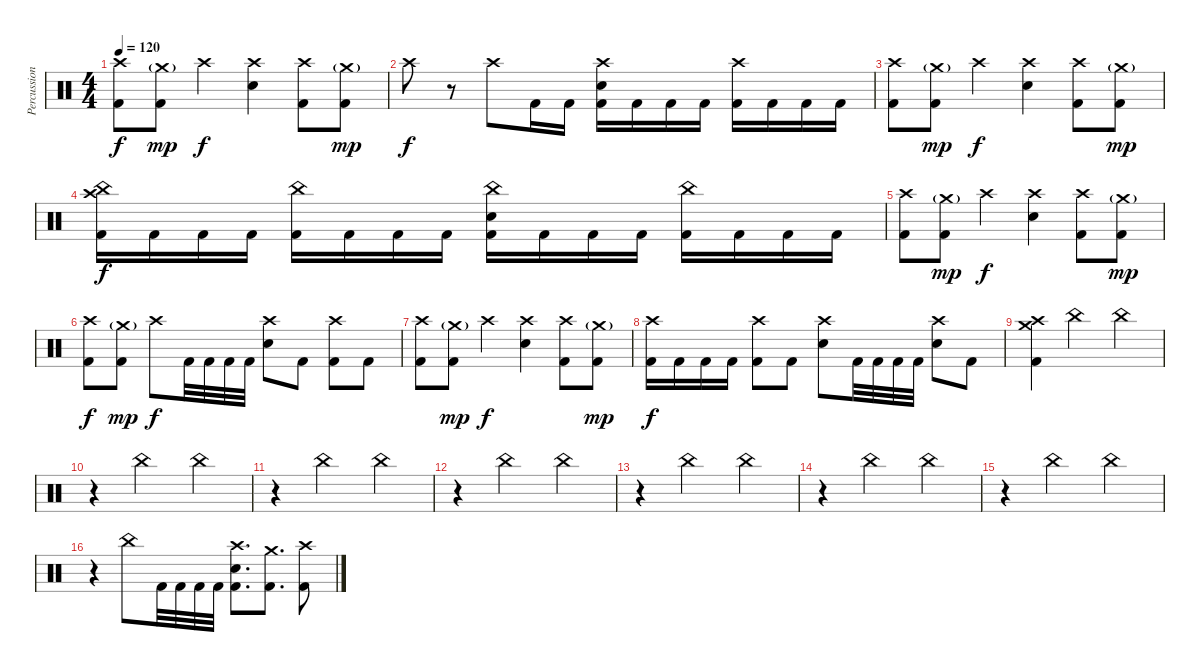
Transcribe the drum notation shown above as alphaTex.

\track ("Percussion" "Percussion") {instrument percussion}
\staff {score}
\articulation defaults
\ts (4 4)
\tempo 120
\clef neutral
\ks c
("Crash high (hit)" "Kick (hit) 2").8{dy f} ("Crash medium (hit)"{g} "Kick (hit) 2").8{dy mp} "Crash high (hit)".4{dy f} ("Crash high (hit)" "Electric Snare (hit)").4 ("Crash high (hit)" "Kick (hit) 2").8 ("Crash medium (hit)"{g} "Kick (hit) 2").8{dy mp} |
"Crash high (hit)".8{dy f} r.8 "Crash high (hit)".8 "Kick (hit) 2".16 "Kick (hit) 2".16 ("Crash high (hit)" "Electric Snare (hit)" "Kick (hit) 2").16 "Kick (hit) 2".16 "Kick (hit) 2".16 "Kick (hit) 2".16 ("Crash high (hit)" "Kick (hit) 2").16 "Kick (hit) 2".16 "Kick (hit) 2".16 "Kick (hit) 2".16 |
("Crash high (hit)" "Kick (hit) 2").8 ("Crash medium (hit)"{g} "Kick (hit) 2").8{dy mp} "Crash high (hit)".4{dy f} ("Crash high (hit)" "Electric Snare (hit)").4 ("Crash high (hit)" "Kick (hit) 2").8 ("Crash medium (hit)"{g} "Kick (hit) 2").8{dy mp} |
("China (hit)" "Crash high (hit)" "Kick (hit) 2").16{dy f} "Kick (hit) 2".16 "Kick (hit) 2".16 "Kick (hit) 2".16 ("China (hit)" "Kick (hit) 2").16 "Kick (hit) 2".16 "Kick (hit) 2".16 "Kick (hit) 2".16 ("China (hit)" "Electric Snare (hit)" "Kick (hit) 2").16 "Kick (hit) 2".16 "Kick (hit) 2".16 "Kick (hit) 2".16 ("China (hit)" "Kick (hit) 2").16 "Kick (hit) 2".16 "Kick (hit) 2".16 "Kick (hit) 2".16 |
("Crash high (hit)" "Kick (hit) 2").8 ("Crash medium (hit)"{g} "Kick (hit) 2").8{dy mp} "Crash high (hit)".4{dy f} ("Crash high (hit)" "Electric Snare (hit)").4 ("Crash high (hit)" "Kick (hit) 2").8 ("Crash medium (hit)"{g} "Kick (hit) 2").8{dy mp} |
("Crash high (hit)" "Kick (hit) 2").8{dy f} ("Crash medium (hit)"{g} "Kick (hit) 2").8{dy mp} "Crash high (hit)".8{dy f} "Kick (hit) 2".32 "Kick (hit) 2".32 "Kick (hit) 2".32 "Kick (hit) 2".32 ("Crash high (hit)" "Electric Snare (hit)").8 "Kick (hit) 2".8 ("Crash high (hit)" "Kick (hit) 2").8 "Kick (hit) 2".8 |
("Crash high (hit)" "Kick (hit) 2").8 ("Crash medium (hit)"{g} "Kick (hit) 2").8{dy mp} "Crash high (hit)".4{dy f} ("Crash high (hit)" "Electric Snare (hit)").4 ("Crash high (hit)" "Kick (hit) 2").8 ("Crash medium (hit)"{g} "Kick (hit) 2").8{dy mp} |
("Crash high (hit)" "Kick (hit) 2").16{dy f} "Kick (hit) 2".16 "Kick (hit) 2".16 "Kick (hit) 2".16 ("Crash high (hit)" "Kick (hit) 2").8 "Kick (hit) 2".8 ("Crash high (hit)" "Electric Snare (hit)").8 "Kick (hit) 2".32 "Kick (hit) 2".32 "Kick (hit) 2".32 "Kick (hit) 2".32 ("Crash high (hit)" "Electric Snare (hit)").8 "Kick (hit) 2".8 |
("Crash high (hit)" "Crash medium (hit)" "Kick (hit) 2").4 "China (hit)".2 "China (hit)".4 |
r.4 "China (hit)".2 "China (hit)".4 |
r.4 "China (hit)".2 "China (hit)".4 |
r.4 "China (hit)".2 "China (hit)".4 |
r.4 "China (hit)".2 "China (hit)".4 |
r.4 "China (hit)".2 "China (hit)".4 |
r.4 "China (hit)".2 "China (hit)".4 |
r.4 "China (hit)".8 "Kick (hit) 2".32 "Kick (hit) 2".32 "Kick (hit) 2".32 "Kick (hit) 2".32 ("Crash high (hit)" "Electric Snare (hit)" "Kick (hit) 2").8{d} ("Crash medium (hit)" "Kick (hit) 2").8{d} ("Crash high (hit)" "Kick (hit) 2").8
